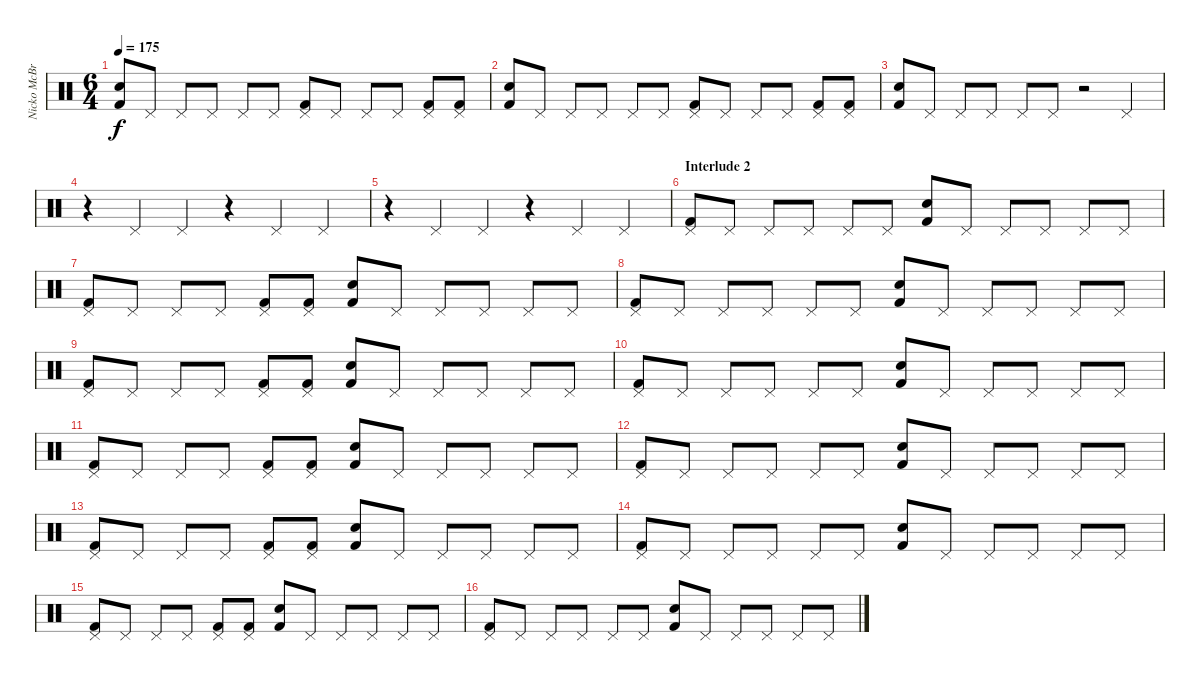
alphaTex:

\track ("Nicko McBrain" "Nicko McBr") {instrument percussion}
\staff {score}
\articulation defaults
\ts (6 4)
\tempo 175
\clef neutral
\ks c
("Snare (hit) 2" "Kick (hit) 2").8{dy f} "Pedal Hi-Hat (hit)".8 "Pedal Hi-Hat (hit)".8 "Pedal Hi-Hat (hit)".8 "Pedal Hi-Hat (hit)".8 "Pedal Hi-Hat (hit)".8 ("Pedal Hi-Hat (hit)" "Kick (hit) 2").8 "Pedal Hi-Hat (hit)".8 "Pedal Hi-Hat (hit)".8 "Pedal Hi-Hat (hit)".8 ("Pedal Hi-Hat (hit)" "Kick (hit) 2").8 ("Pedal Hi-Hat (hit)" "Kick (hit) 2").8 |
("Snare (hit) 2" "Kick (hit) 2").8 "Pedal Hi-Hat (hit)".8 "Pedal Hi-Hat (hit)".8 "Pedal Hi-Hat (hit)".8 "Pedal Hi-Hat (hit)".8 "Pedal Hi-Hat (hit)".8 ("Pedal Hi-Hat (hit)" "Kick (hit) 2").8 "Pedal Hi-Hat (hit)".8 "Pedal Hi-Hat (hit)".8 "Pedal Hi-Hat (hit)".8 ("Pedal Hi-Hat (hit)" "Kick (hit) 2").8 ("Pedal Hi-Hat (hit)" "Kick (hit) 2").8 |
("Snare (hit) 2" "Kick (hit) 2").8 "Pedal Hi-Hat (hit)".8 "Pedal Hi-Hat (hit)".8 "Pedal Hi-Hat (hit)".8 "Pedal Hi-Hat (hit)".8 "Pedal Hi-Hat (hit)".8 r.2 "Pedal Hi-Hat (hit)".4 |
r.4 "Pedal Hi-Hat (hit)".4 "Pedal Hi-Hat (hit)".4 r.4 "Pedal Hi-Hat (hit)".4 "Pedal Hi-Hat (hit)".4 |
r.4 "Pedal Hi-Hat (hit)".4 "Pedal Hi-Hat (hit)".4 r.4 "Pedal Hi-Hat (hit)".4 "Pedal Hi-Hat (hit)".4 |
\section ("" "Interlude 2")
("Pedal Hi-Hat (hit)" "Kick (hit) 2").8 "Pedal Hi-Hat (hit)".8 "Pedal Hi-Hat (hit)".8 "Pedal Hi-Hat (hit)".8 "Pedal Hi-Hat (hit)".8 "Pedal Hi-Hat (hit)".8 ("Snare (hit) 2" "Kick (hit) 2").8 "Pedal Hi-Hat (hit)".8 "Pedal Hi-Hat (hit)".8 "Pedal Hi-Hat (hit)".8 "Pedal Hi-Hat (hit)".8 "Pedal Hi-Hat (hit)".8 |
("Pedal Hi-Hat (hit)" "Kick (hit) 2").8 "Pedal Hi-Hat (hit)".8 "Pedal Hi-Hat (hit)".8 "Pedal Hi-Hat (hit)".8 ("Pedal Hi-Hat (hit)" "Kick (hit) 2").8 ("Pedal Hi-Hat (hit)" "Kick (hit) 2").8 ("Snare (hit) 2" "Kick (hit) 2").8 "Pedal Hi-Hat (hit)".8 "Pedal Hi-Hat (hit)".8 "Pedal Hi-Hat (hit)".8 "Pedal Hi-Hat (hit)".8 "Pedal Hi-Hat (hit)".8 |
("Pedal Hi-Hat (hit)" "Kick (hit) 2").8 "Pedal Hi-Hat (hit)".8 "Pedal Hi-Hat (hit)".8 "Pedal Hi-Hat (hit)".8 "Pedal Hi-Hat (hit)".8 "Pedal Hi-Hat (hit)".8 ("Snare (hit) 2" "Kick (hit) 2").8 "Pedal Hi-Hat (hit)".8 "Pedal Hi-Hat (hit)".8 "Pedal Hi-Hat (hit)".8 "Pedal Hi-Hat (hit)".8 "Pedal Hi-Hat (hit)".8 |
("Pedal Hi-Hat (hit)" "Kick (hit) 2").8 "Pedal Hi-Hat (hit)".8 "Pedal Hi-Hat (hit)".8 "Pedal Hi-Hat (hit)".8 ("Pedal Hi-Hat (hit)" "Kick (hit) 2").8 ("Pedal Hi-Hat (hit)" "Kick (hit) 2").8 ("Snare (hit) 2" "Kick (hit) 2").8 "Pedal Hi-Hat (hit)".8 "Pedal Hi-Hat (hit)".8 "Pedal Hi-Hat (hit)".8 "Pedal Hi-Hat (hit)".8 "Pedal Hi-Hat (hit)".8 |
("Pedal Hi-Hat (hit)" "Kick (hit) 2").8 "Pedal Hi-Hat (hit)".8 "Pedal Hi-Hat (hit)".8 "Pedal Hi-Hat (hit)".8 "Pedal Hi-Hat (hit)".8 "Pedal Hi-Hat (hit)".8 ("Snare (hit) 2" "Kick (hit) 2").8 "Pedal Hi-Hat (hit)".8 "Pedal Hi-Hat (hit)".8 "Pedal Hi-Hat (hit)".8 "Pedal Hi-Hat (hit)".8 "Pedal Hi-Hat (hit)".8 |
("Pedal Hi-Hat (hit)" "Kick (hit) 2").8 "Pedal Hi-Hat (hit)".8 "Pedal Hi-Hat (hit)".8 "Pedal Hi-Hat (hit)".8 ("Pedal Hi-Hat (hit)" "Kick (hit) 2").8 ("Pedal Hi-Hat (hit)" "Kick (hit) 2").8 ("Snare (hit) 2" "Kick (hit) 2").8 "Pedal Hi-Hat (hit)".8 "Pedal Hi-Hat (hit)".8 "Pedal Hi-Hat (hit)".8 "Pedal Hi-Hat (hit)".8 "Pedal Hi-Hat (hit)".8 |
("Pedal Hi-Hat (hit)" "Kick (hit) 2").8 "Pedal Hi-Hat (hit)".8 "Pedal Hi-Hat (hit)".8 "Pedal Hi-Hat (hit)".8 "Pedal Hi-Hat (hit)".8 "Pedal Hi-Hat (hit)".8 ("Snare (hit) 2" "Kick (hit) 2").8 "Pedal Hi-Hat (hit)".8 "Pedal Hi-Hat (hit)".8 "Pedal Hi-Hat (hit)".8 "Pedal Hi-Hat (hit)".8 "Pedal Hi-Hat (hit)".8 |
("Pedal Hi-Hat (hit)" "Kick (hit) 2").8 "Pedal Hi-Hat (hit)".8 "Pedal Hi-Hat (hit)".8 "Pedal Hi-Hat (hit)".8 ("Pedal Hi-Hat (hit)" "Kick (hit) 2").8 ("Pedal Hi-Hat (hit)" "Kick (hit) 2").8 ("Snare (hit) 2" "Kick (hit) 2").8 "Pedal Hi-Hat (hit)".8 "Pedal Hi-Hat (hit)".8 "Pedal Hi-Hat (hit)".8 "Pedal Hi-Hat (hit)".8 "Pedal Hi-Hat (hit)".8 |
("Pedal Hi-Hat (hit)" "Kick (hit) 2").8 "Pedal Hi-Hat (hit)".8 "Pedal Hi-Hat (hit)".8 "Pedal Hi-Hat (hit)".8 "Pedal Hi-Hat (hit)".8 "Pedal Hi-Hat (hit)".8 ("Snare (hit) 2" "Kick (hit) 2").8 "Pedal Hi-Hat (hit)".8 "Pedal Hi-Hat (hit)".8 "Pedal Hi-Hat (hit)".8 "Pedal Hi-Hat (hit)".8 "Pedal Hi-Hat (hit)".8 |
("Pedal Hi-Hat (hit)" "Kick (hit) 2").8 "Pedal Hi-Hat (hit)".8 "Pedal Hi-Hat (hit)".8 "Pedal Hi-Hat (hit)".8 ("Pedal Hi-Hat (hit)" "Kick (hit) 2").8 ("Pedal Hi-Hat (hit)" "Kick (hit) 2").8 ("Snare (hit) 2" "Kick (hit) 2").8 "Pedal Hi-Hat (hit)".8 "Pedal Hi-Hat (hit)".8 "Pedal Hi-Hat (hit)".8 "Pedal Hi-Hat (hit)".8 "Pedal Hi-Hat (hit)".8 |
("Pedal Hi-Hat (hit)" "Kick (hit) 2").8 "Pedal Hi-Hat (hit)".8 "Pedal Hi-Hat (hit)".8 "Pedal Hi-Hat (hit)".8 "Pedal Hi-Hat (hit)".8 "Pedal Hi-Hat (hit)".8 ("Snare (hit) 2" "Kick (hit) 2").8 "Pedal Hi-Hat (hit)".8 "Pedal Hi-Hat (hit)".8 "Pedal Hi-Hat (hit)".8 "Pedal Hi-Hat (hit)".8 "Pedal Hi-Hat (hit)".8
